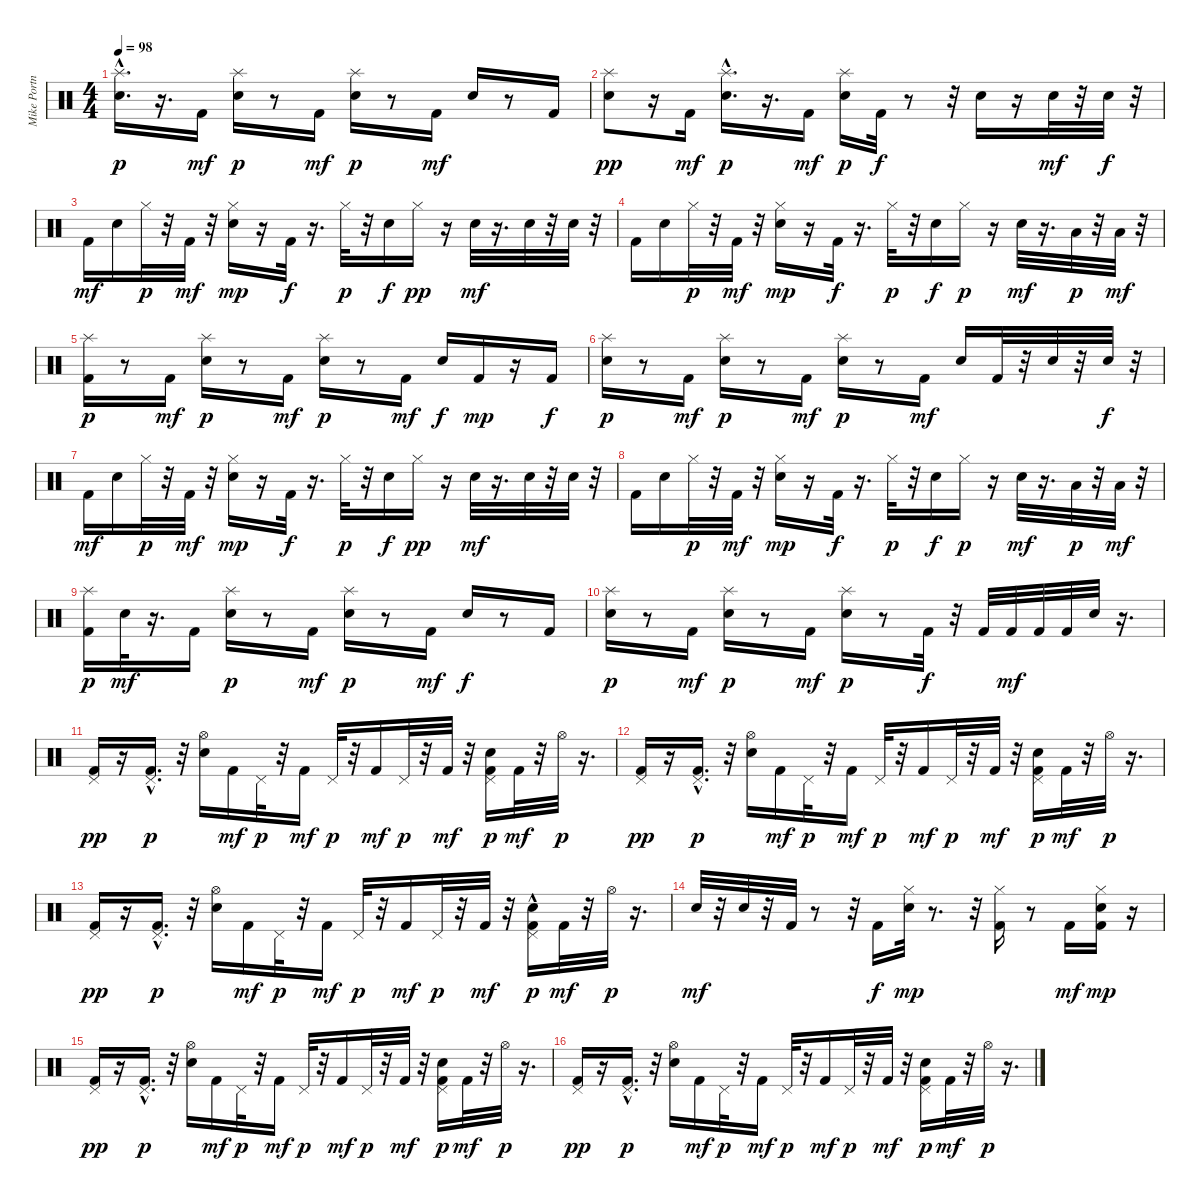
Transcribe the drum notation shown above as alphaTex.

\track ("Mike Portnoy" "Mike Portn") {instrument percussion}
\staff {score}
\articulation defaults
\ts (4 4)
\tempo 98
\clef neutral
\ks c
("Electric Snare (hit)"{hac} "Splash (hit)").16{d dy p} r.16{d} "Kick (hit) 2".16{dy mf} ("Electric Snare (hit)" "Splash (hit)").16{dy p} r.8 "Kick (hit) 2".16{dy mf} ("Electric Snare (hit)" "Splash (hit)").16{dy p} r.8 "Kick (hit) 2".16{dy mf} "Electric Snare (hit)".16 r.8 "Kick (hit) 2".16 |
("Electric Snare (hit)" "Splash (hit)").8{dy pp} r.16 "Kick (hit) 2".16{dy mf} ("Electric Snare (hit)"{hac} "Splash (hit)").16{d dy p} r.16{d} "Kick (hit) 2".16{dy mf} ("Electric Snare (hit)" "Splash (hit)").16{dy p} "Kick (hit) 2".32{dy f} r.8 r.32 "Electric Snare (hit)".16 r.16 "Electric Snare (hit)".32{dy mf} r.32 "Electric Snare (hit)".32{dy f} r.32 |
"Kick (hit) 2".16{dy mf} "Electric Snare (hit)".16 "Hi-Hat (closed)".32{dy p} r.32 "Kick (hit) 2".32{dy mf} r.32 ("Electric Snare (hit)" "Hi-Hat (closed)").16{dy mp} r.16 "Kick (hit) 2".32{dy f} r.16{d} "Hi-Hat (closed)".32{dy p} r.32 "Electric Snare (hit)".16{dy f} "Hi-Hat (closed)".16{dy pp} r.16 "Electric Snare (hit)".32{dy mf} r.16{d} "Electric Snare (hit)".32 r.32 "Electric Snare (hit)".32 r.32 |
"Kick (hit) 2".16 "Electric Snare (hit)".16 "Hi-Hat (closed)".32{dy p} r.32 "Kick (hit) 2".32{dy mf} r.32 ("Electric Snare (hit)" "Hi-Hat (closed)").16{dy mp} r.16 "Kick (hit) 2".32{dy f} r.16{d} "Hi-Hat (closed)".32{dy p} r.32 "Electric Snare (hit)".16{dy f} "Hi-Hat (closed)".16{dy p} r.16 "Electric Snare (hit)".32{dy mf} r.16{d} "Low Tom (hit)".32{dy p} r.32 "Low Tom (hit)".32{dy mf} r.32 |
("Kick (hit) 2" "Splash (hit)").16{dy p} r.8 "Kick (hit) 2".16{dy mf} ("Electric Snare (hit)" "Splash (hit)").16{dy p} r.8 "Kick (hit) 2".16{dy mf} ("Electric Snare (hit)" "Splash (hit)").16{dy p} r.8 "Kick (hit) 2".16{dy mf} "Electric Snare (hit)".16{dy f} "Kick (hit) 2".16{dy mp} r.16 "Kick (hit) 2".16{dy f} |
("Electric Snare (hit)" "Splash (hit)").16{dy p} r.8 "Kick (hit) 2".16{dy mf} ("Electric Snare (hit)" "Splash (hit)").16{dy p} r.8 "Kick (hit) 2".16{dy mf} ("Electric Snare (hit)" "Splash (hit)").16{dy p} r.8 "Kick (hit) 2".16{dy mf} "Electric Snare (hit)".16 "Kick (hit) 2".32 r.32 "Electric Snare (hit)".32 r.32 "Electric Snare (hit)".32{dy f} r.32 |
"Kick (hit) 2".16{dy mf} "Electric Snare (hit)".16 "Hi-Hat (closed)".32{dy p} r.32 "Kick (hit) 2".32{dy mf} r.32 ("Electric Snare (hit)" "Hi-Hat (closed)").16{dy mp} r.16 "Kick (hit) 2".32{dy f} r.16{d} "Hi-Hat (closed)".32{dy p} r.32 "Electric Snare (hit)".16{dy f} "Hi-Hat (closed)".16{dy pp} r.16 "Electric Snare (hit)".32{dy mf} r.16{d} "Electric Snare (hit)".32 r.32 "Electric Snare (hit)".32 r.32 |
"Kick (hit) 2".16 "Electric Snare (hit)".16 "Hi-Hat (closed)".32{dy p} r.32 "Kick (hit) 2".32{dy mf} r.32 ("Electric Snare (hit)" "Hi-Hat (closed)").16{dy mp} r.16 "Kick (hit) 2".32{dy f} r.16{d} "Hi-Hat (closed)".32{dy p} r.32 "Electric Snare (hit)".16{dy f} "Hi-Hat (closed)".16{dy p} r.16 "Electric Snare (hit)".32{dy mf} r.16{d} "Low Tom (hit)".32{dy p} r.32 "Low Tom (hit)".32{dy mf} r.32 |
("Kick (hit) 2" "Splash (hit)").16{dy p} "Electric Snare (hit)".32{dy mf} r.16{d} "Kick (hit) 2".16 ("Electric Snare (hit)" "Splash (hit)").16{dy p} r.8 "Kick (hit) 2".16{dy mf} ("Electric Snare (hit)" "Splash (hit)").16{dy p} r.8 "Kick (hit) 2".16{dy mf} "Electric Snare (hit)".16{dy f} r.8 "Kick (hit) 2".16 |
("Electric Snare (hit)" "Splash (hit)").16{dy p} r.8 "Kick (hit) 2".16{dy mf} ("Electric Snare (hit)" "Splash (hit)").16{dy p} r.8 "Kick (hit) 2".16{dy mf} ("Electric Snare (hit)" "Splash (hit)").16{dy p} r.8 "Kick (hit) 2".32{dy f} r.32 "Kick (hit) 2".32 "Kick (hit) 2".32{dy mf} "Kick (hit) 2".32 "Kick (hit) 2".32 "Electric Snare (hit)".32 r.16{d} |
("Kick (hit) 2" "Pedal Hi-Hat (hit)").16{dy pp} r.16 ("Kick (hit) 2"{hac} "Pedal Hi-Hat (hit)").16{d dy p} r.32 ("Electric Snare (hit)" "Hi-Hat (open)").16 "Kick (hit) 2".16{dy mf} "Pedal Hi-Hat (hit)".32{dy p} r.32 "Kick (hit) 2".16{dy mf} "Pedal Hi-Hat (hit)".32{dy p} r.32 "Kick (hit) 2".16{dy mf} "Pedal Hi-Hat (hit)".32{dy p} r.32 "Kick (hit) 2".32{dy mf} r.32 ("Kick (hit) 2" "Electric Snare (hit)" "Pedal Hi-Hat (hit)").16{dy p} "Kick (hit) 2".32{dy mf} r.32 "Hi-Hat (open)".32{dy p} r.16{d} |
("Kick (hit) 2" "Pedal Hi-Hat (hit)").16{dy pp} r.16 ("Kick (hit) 2"{hac} "Pedal Hi-Hat (hit)").16{d dy p} r.32 ("Electric Snare (hit)" "Hi-Hat (open)").16 "Kick (hit) 2".16{dy mf} "Pedal Hi-Hat (hit)".32{dy p} r.32 "Kick (hit) 2".16{dy mf} "Pedal Hi-Hat (hit)".32{dy p} r.32 "Kick (hit) 2".16{dy mf} "Pedal Hi-Hat (hit)".32{dy p} r.32 "Kick (hit) 2".32{dy mf} r.32 ("Kick (hit) 2" "Electric Snare (hit)" "Pedal Hi-Hat (hit)").16{dy p} "Kick (hit) 2".32{dy mf} r.32 "Hi-Hat (open)".32{dy p} r.16{d} |
("Kick (hit) 2" "Pedal Hi-Hat (hit)").16{dy pp} r.16 ("Kick (hit) 2"{hac} "Pedal Hi-Hat (hit)").16{d dy p} r.32 ("Electric Snare (hit)" "Hi-Hat (open)").16 "Kick (hit) 2".16{dy mf} "Pedal Hi-Hat (hit)".32{dy p} r.32 "Kick (hit) 2".16{dy mf} "Pedal Hi-Hat (hit)".32{dy p} r.32 "Kick (hit) 2".16{dy mf} "Pedal Hi-Hat (hit)".32{dy p} r.32 "Kick (hit) 2".32{dy mf} r.32 ("Kick (hit) 2" "Electric Snare (hit)"{hac} "Pedal Hi-Hat (hit)").16{dy p} "Kick (hit) 2".32{dy mf} r.32 "Hi-Hat (open)".32{dy p} r.16{d} |
"Electric Snare (hit)".32{dy mf} r.32 "Electric Snare (hit)".32 r.32 "Kick (hit) 2".32 r.8 r.32 "Kick (hit) 2".16{dy f} ("Electric Snare (hit)" "Hi-Hat (closed)").32{dy mp} r.8{d} r.32 ("Kick (hit) 2" "Hi-Hat (closed)").16 r.8 "Kick (hit) 2".16{dy mf} ("Kick (hit) 2" "Electric Snare (hit)" "Hi-Hat (closed)").16{dy mp} r.16 |
("Kick (hit) 2" "Pedal Hi-Hat (hit)").16{dy pp} r.16 ("Kick (hit) 2"{hac} "Pedal Hi-Hat (hit)").16{d dy p} r.32 ("Electric Snare (hit)" "Hi-Hat (open)").16 "Kick (hit) 2".16{dy mf} "Pedal Hi-Hat (hit)".32{dy p} r.32 "Kick (hit) 2".16{dy mf} "Pedal Hi-Hat (hit)".32{dy p} r.32 "Kick (hit) 2".16{dy mf} "Pedal Hi-Hat (hit)".32{dy p} r.32 "Kick (hit) 2".32{dy mf} r.32 ("Kick (hit) 2" "Electric Snare (hit)" "Pedal Hi-Hat (hit)").16{dy p} "Kick (hit) 2".32{dy mf} r.32 "Hi-Hat (open)".32{dy p} r.16{d} |
("Kick (hit) 2" "Pedal Hi-Hat (hit)").16{dy pp} r.16 ("Kick (hit) 2"{hac} "Pedal Hi-Hat (hit)").16{d dy p} r.32 ("Electric Snare (hit)" "Hi-Hat (open)").16 "Kick (hit) 2".16{dy mf} "Pedal Hi-Hat (hit)".32{dy p} r.32 "Kick (hit) 2".16{dy mf} "Pedal Hi-Hat (hit)".32{dy p} r.32 "Kick (hit) 2".16{dy mf} "Pedal Hi-Hat (hit)".32{dy p} r.32 "Kick (hit) 2".32{dy mf} r.32 ("Kick (hit) 2" "Electric Snare (hit)" "Pedal Hi-Hat (hit)").16{dy p} "Kick (hit) 2".32{dy mf} r.32 "Hi-Hat (open)".32{dy p} r.16{d}
